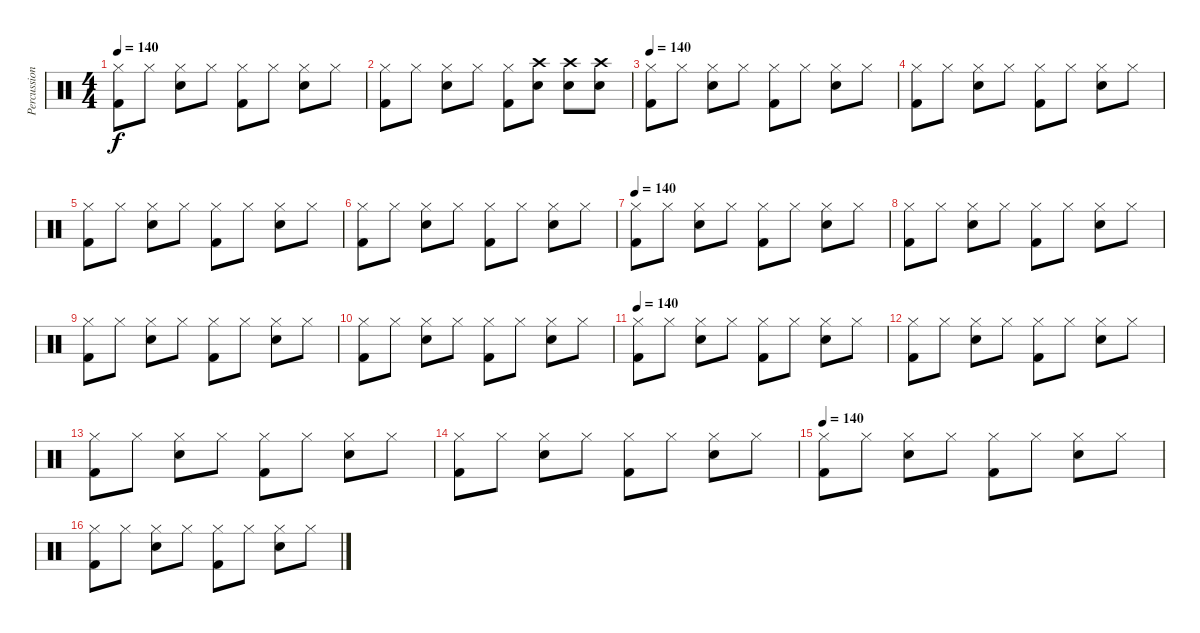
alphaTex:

\track ("Percussion" "Percussion") {instrument percussion}
\staff {score}
\articulation defaults
\ts (4 4)
\tempo 140
\clef neutral
\ks c
("Hi-Hat (closed)" "Kick (hit) 2").8{dy f} "Hi-Hat (closed)".8 ("Hi-Hat (closed)" "Snare (hit) 2").8 "Hi-Hat (closed)".8 ("Hi-Hat (closed)" "Kick (hit) 2").8 "Hi-Hat (closed)".8 ("Hi-Hat (closed)" "Snare (hit) 2").8 "Hi-Hat (closed)".8 |
("Hi-Hat (closed)" "Kick (hit) 2").8 "Hi-Hat (closed)".8 ("Hi-Hat (closed)" "Snare (hit) 2").8 "Hi-Hat (closed)".8 ("Hi-Hat (closed)" "Kick (hit) 2").8 ("Crash high (hit)" "Snare (hit) 2").8 ("Crash high (hit)" "Snare (hit) 2").8 ("Crash high (hit)" "Snare (hit) 2").8 |
\tempo 140
("Hi-Hat (closed)" "Kick (hit) 2").8 "Hi-Hat (closed)".8 ("Hi-Hat (closed)" "Snare (hit) 2").8 "Hi-Hat (closed)".8 ("Hi-Hat (closed)" "Kick (hit) 2").8 "Hi-Hat (closed)".8 ("Hi-Hat (closed)" "Snare (hit) 2").8 "Hi-Hat (closed)".8 |
("Hi-Hat (closed)" "Kick (hit) 2").8 "Hi-Hat (closed)".8 ("Hi-Hat (closed)" "Snare (hit) 2").8 "Hi-Hat (closed)".8 ("Hi-Hat (closed)" "Kick (hit) 2").8 "Hi-Hat (closed)".8 ("Hi-Hat (closed)" "Snare (hit) 2").8 "Hi-Hat (closed)".8 |
("Hi-Hat (closed)" "Kick (hit) 2").8 "Hi-Hat (closed)".8 ("Hi-Hat (closed)" "Snare (hit) 2").8 "Hi-Hat (closed)".8 ("Hi-Hat (closed)" "Kick (hit) 2").8 "Hi-Hat (closed)".8 ("Hi-Hat (closed)" "Snare (hit) 2").8 "Hi-Hat (closed)".8 |
("Hi-Hat (closed)" "Kick (hit) 2").8 "Hi-Hat (closed)".8 ("Hi-Hat (closed)" "Snare (hit) 2").8 "Hi-Hat (closed)".8 ("Hi-Hat (closed)" "Kick (hit) 2").8 "Hi-Hat (closed)".8 ("Hi-Hat (closed)" "Snare (hit) 2").8 "Hi-Hat (closed)".8 |
\tempo 140
("Hi-Hat (closed)" "Kick (hit) 2").8 "Hi-Hat (closed)".8 ("Hi-Hat (closed)" "Snare (hit) 2").8 "Hi-Hat (closed)".8 ("Hi-Hat (closed)" "Kick (hit) 2").8 "Hi-Hat (closed)".8 ("Hi-Hat (closed)" "Snare (hit) 2").8 "Hi-Hat (closed)".8 |
("Hi-Hat (closed)" "Kick (hit) 2").8 "Hi-Hat (closed)".8 ("Hi-Hat (closed)" "Snare (hit) 2").8 "Hi-Hat (closed)".8 ("Hi-Hat (closed)" "Kick (hit) 2").8 "Hi-Hat (closed)".8 ("Hi-Hat (closed)" "Snare (hit) 2").8 "Hi-Hat (closed)".8 |
("Hi-Hat (closed)" "Kick (hit) 2").8 "Hi-Hat (closed)".8 ("Hi-Hat (closed)" "Snare (hit) 2").8 "Hi-Hat (closed)".8 ("Hi-Hat (closed)" "Kick (hit) 2").8 "Hi-Hat (closed)".8 ("Hi-Hat (closed)" "Snare (hit) 2").8 "Hi-Hat (closed)".8 |
("Hi-Hat (closed)" "Kick (hit) 2").8 "Hi-Hat (closed)".8 ("Hi-Hat (closed)" "Snare (hit) 2").8 "Hi-Hat (closed)".8 ("Hi-Hat (closed)" "Kick (hit) 2").8 "Hi-Hat (closed)".8 ("Hi-Hat (closed)" "Snare (hit) 2").8 "Hi-Hat (closed)".8 |
\tempo 140
("Hi-Hat (closed)" "Kick (hit) 2").8 "Hi-Hat (closed)".8 ("Hi-Hat (closed)" "Snare (hit) 2").8 "Hi-Hat (closed)".8 ("Hi-Hat (closed)" "Kick (hit) 2").8 "Hi-Hat (closed)".8 ("Hi-Hat (closed)" "Snare (hit) 2").8 "Hi-Hat (closed)".8 |
("Hi-Hat (closed)" "Kick (hit) 2").8 "Hi-Hat (closed)".8 ("Hi-Hat (closed)" "Snare (hit) 2").8 "Hi-Hat (closed)".8 ("Hi-Hat (closed)" "Kick (hit) 2").8 "Hi-Hat (closed)".8 ("Hi-Hat (closed)" "Snare (hit) 2").8 "Hi-Hat (closed)".8 |
("Hi-Hat (closed)" "Kick (hit) 2").8 "Hi-Hat (closed)".8 ("Hi-Hat (closed)" "Snare (hit) 2").8 "Hi-Hat (closed)".8 ("Hi-Hat (closed)" "Kick (hit) 2").8 "Hi-Hat (closed)".8 ("Hi-Hat (closed)" "Snare (hit) 2").8 "Hi-Hat (closed)".8 |
("Hi-Hat (closed)" "Kick (hit) 2").8 "Hi-Hat (closed)".8 ("Hi-Hat (closed)" "Snare (hit) 2").8 "Hi-Hat (closed)".8 ("Hi-Hat (closed)" "Kick (hit) 2").8 "Hi-Hat (closed)".8 ("Hi-Hat (closed)" "Snare (hit) 2").8 "Hi-Hat (closed)".8 |
\tempo 140
("Hi-Hat (closed)" "Kick (hit) 2").8 "Hi-Hat (closed)".8 ("Hi-Hat (closed)" "Snare (hit) 2").8 "Hi-Hat (closed)".8 ("Hi-Hat (closed)" "Kick (hit) 2").8 "Hi-Hat (closed)".8 ("Hi-Hat (closed)" "Snare (hit) 2").8 "Hi-Hat (closed)".8 |
("Hi-Hat (closed)" "Kick (hit) 2").8 "Hi-Hat (closed)".8 ("Hi-Hat (closed)" "Snare (hit) 2").8 "Hi-Hat (closed)".8 ("Hi-Hat (closed)" "Kick (hit) 2").8 "Hi-Hat (closed)".8 ("Hi-Hat (closed)" "Snare (hit) 2").8 "Hi-Hat (closed)".8
